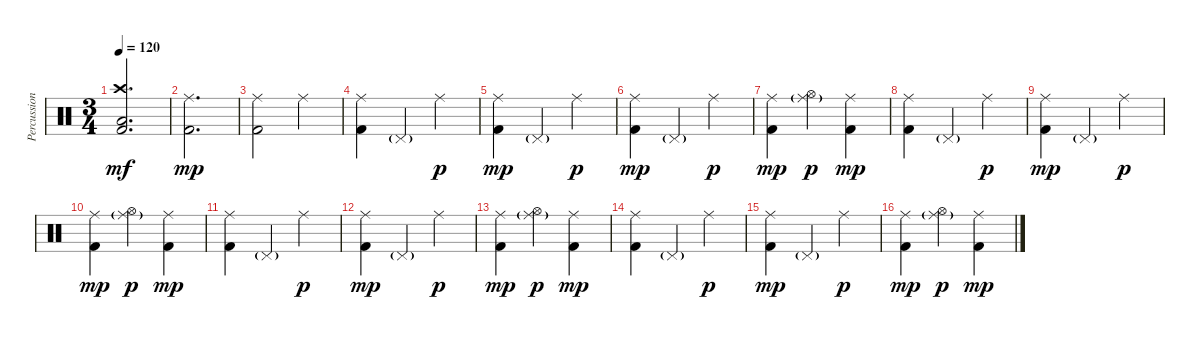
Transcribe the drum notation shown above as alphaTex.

\track ("Percussion" "Percussion") {instrument percussion}
\staff {score}
\articulation defaults
\ts (3 4)
\tempo 120
\clef neutral
\ks c
("Kick (hit) 2" "Crash high (hit)" "Low Floor Tom (hit)").2{d dy mf} |
("Kick (hit) 2" "Ride (middle)").2{d dy mp} |
("Kick (hit) 2" "Ride (middle)").2 "Ride (middle)".4 |
("Kick (hit) 2" "Ride (middle)").4 "Pedal Hi-Hat (hit)"{g}.4 "Ride (middle)".4{dy p} |
("Kick (hit) 2" "Ride (middle)").4{dy mp} "Pedal Hi-Hat (hit)"{g}.4 "Ride (middle)".4{dy p} |
("Kick (hit) 2" "Ride (middle)").4{dy mp} "Pedal Hi-Hat (hit)"{g}.4 "Ride (middle)".4{dy p} |
("Kick (hit) 2" "Ride (middle)").4{dy mp} ("Ride (middle)"{g} "Hi-Hat (open)").4{dy p} ("Kick (hit) 2" "Ride (middle)").4{dy mp} |
("Kick (hit) 2" "Ride (middle)").4 "Pedal Hi-Hat (hit)"{g}.4 "Ride (middle)".4{dy p} |
("Kick (hit) 2" "Ride (middle)").4{dy mp} "Pedal Hi-Hat (hit)"{g}.4 "Ride (middle)".4{dy p} |
("Kick (hit) 2" "Ride (middle)").4{dy mp} ("Ride (middle)"{g} "Hi-Hat (open)").4{dy p} ("Kick (hit) 2" "Ride (middle)").4{dy mp} |
("Kick (hit) 2" "Ride (middle)").4 "Pedal Hi-Hat (hit)"{g}.4 "Ride (middle)".4{dy p} |
("Kick (hit) 2" "Ride (middle)").4{dy mp} "Pedal Hi-Hat (hit)"{g}.4 "Ride (middle)".4{dy p} |
("Kick (hit) 2" "Ride (middle)").4{dy mp} ("Ride (middle)"{g} "Hi-Hat (open)").4{dy p} ("Kick (hit) 2" "Ride (middle)").4{dy mp} |
("Kick (hit) 2" "Ride (middle)").4 "Pedal Hi-Hat (hit)"{g}.4 "Ride (middle)".4{dy p} |
("Kick (hit) 2" "Ride (middle)").4{dy mp} "Pedal Hi-Hat (hit)"{g}.4 "Ride (middle)".4{dy p} |
("Kick (hit) 2" "Ride (middle)").4{dy mp} ("Ride (middle)"{g} "Hi-Hat (open)").4{dy p} ("Kick (hit) 2" "Ride (middle)").4{dy mp}
